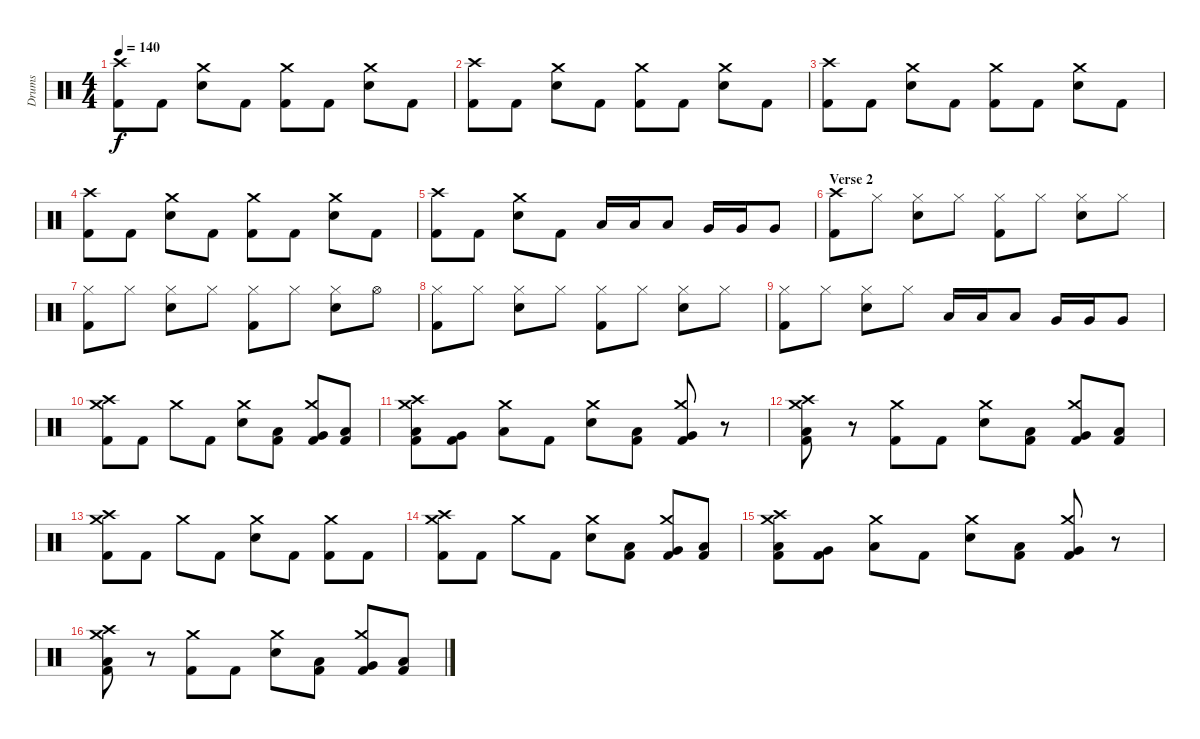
\track ("Drums" "Drums") {instrument percussion}
\staff {score}
\articulation defaults
\ts (4 4)
\tempo 140
\clef neutral
\ks c
("Crash high (hit)" "Kick (hit) 2").8{dy f} "Kick (hit) 2".8 ("Crash medium (hit)" "Snare (hit) 2").8 "Kick (hit) 2".8 ("Crash medium (hit)" "Kick (hit) 2").8 "Kick (hit) 2".8 ("Crash medium (hit)" "Snare (hit) 2").8 "Kick (hit) 2".8 |
("Crash high (hit)" "Kick (hit) 2").8 "Kick (hit) 2".8 ("Crash medium (hit)" "Snare (hit) 2").8 "Kick (hit) 2".8 ("Crash medium (hit)" "Kick (hit) 2").8 "Kick (hit) 2".8 ("Crash medium (hit)" "Snare (hit) 2").8 "Kick (hit) 2".8 |
("Crash high (hit)" "Kick (hit) 2").8 "Kick (hit) 2".8 ("Crash medium (hit)" "Snare (hit) 2").8 "Kick (hit) 2".8 ("Crash medium (hit)" "Kick (hit) 2").8 "Kick (hit) 2".8 ("Crash medium (hit)" "Snare (hit) 2").8 "Kick (hit) 2".8 |
("Crash high (hit)" "Kick (hit) 2").8 "Kick (hit) 2".8 ("Crash medium (hit)" "Snare (hit) 2").8 "Kick (hit) 2".8 ("Crash medium (hit)" "Kick (hit) 2").8 "Kick (hit) 2".8 ("Crash medium (hit)" "Snare (hit) 2").8 "Kick (hit) 2".8 |
("Crash high (hit)" "Kick (hit) 2").8 "Kick (hit) 2".8 ("Crash medium (hit)" "Snare (hit) 2").8 "Kick (hit) 2".8 "Low Tom (hit)".16 "Low Tom (hit)".16 "Low Tom (hit)".8 "Very Low Tom (hit)".16 "Very Low Tom (hit)".16 "Very Low Tom (hit)".8 |
\section ("" "Verse 2")
("Crash high (hit)" "Kick (hit) 2").8 "Hi-Hat (closed)".8 ("Hi-Hat (closed)" "Snare (hit) 2").8 "Hi-Hat (closed)".8 ("Hi-Hat (closed)" "Kick (hit) 2").8 "Hi-Hat (closed)".8 ("Hi-Hat (closed)" "Snare (hit) 2").8 "Hi-Hat (closed)".8 |
("Hi-Hat (closed)" "Kick (hit) 2").8 "Hi-Hat (closed)".8 ("Hi-Hat (closed)" "Snare (hit) 2").8 "Hi-Hat (closed)".8 ("Hi-Hat (closed)" "Kick (hit) 2").8 "Hi-Hat (closed)".8 ("Hi-Hat (closed)" "Snare (hit) 2").8 "Hi-Hat (open)".8 |
("Hi-Hat (closed)" "Kick (hit) 2").8 "Hi-Hat (closed)".8 ("Hi-Hat (closed)" "Snare (hit) 2").8 "Hi-Hat (closed)".8 ("Hi-Hat (closed)" "Kick (hit) 2").8 "Hi-Hat (closed)".8 ("Hi-Hat (closed)" "Snare (hit) 2").8 "Hi-Hat (closed)".8 |
("Hi-Hat (closed)" "Kick (hit) 2").8 "Hi-Hat (closed)".8 ("Hi-Hat (closed)" "Snare (hit) 2").8 "Hi-Hat (closed)".8 "Low Tom (hit)".16 "Low Tom (hit)".16 "Low Tom (hit)".8 "Very Low Tom (hit)".16 "Very Low Tom (hit)".16 "Very Low Tom (hit)".8 |
("Crash high (hit)" "Crash medium (hit)" "Kick (hit) 2").8 "Kick (hit) 2".8 "Crash medium (hit)".8 "Kick (hit) 2".8 ("Crash medium (hit)" "Snare (hit) 2").8 ("Low Tom (hit)" "Kick (hit) 2").8 ("Crash medium (hit)" "Very Low Tom (hit)" "Kick (hit) 2").8 ("Low Floor Tom (hit)" "Kick (hit) 2").8 |
("Crash high (hit)" "Crash medium (hit)" "Low Tom (hit)" "Kick (hit) 2").8 ("Very Low Tom (hit)" "Kick (hit) 2").8 ("Crash medium (hit)" "Low Floor Tom (hit)").8 "Kick (hit) 2".8 ("Crash medium (hit)" "Snare (hit) 2").8 ("Low Tom (hit)" "Kick (hit) 2").8 ("Crash medium (hit)" "Very Low Tom (hit)" "Kick (hit) 2").8 r.8 |
("Crash high (hit)" "Crash medium (hit)" "Low Tom (hit)" "Kick (hit) 2").8 r.8 ("Crash medium (hit)" "Kick (hit) 2").8 "Kick (hit) 2".8 ("Crash medium (hit)" "Snare (hit) 2").8 ("Low Tom (hit)" "Kick (hit) 2").8 ("Crash medium (hit)" "Very Low Tom (hit)" "Kick (hit) 2").8 ("Low Floor Tom (hit)" "Kick (hit) 2").8 |
("Crash high (hit)" "Crash medium (hit)" "Kick (hit) 2").8 "Kick (hit) 2".8 "Crash medium (hit)".8 "Kick (hit) 2".8 ("Crash medium (hit)" "Snare (hit) 2").8 "Kick (hit) 2".8 ("Crash medium (hit)" "Kick (hit) 2").8 "Kick (hit) 2".8 |
("Crash high (hit)" "Crash medium (hit)" "Kick (hit) 2").8 "Kick (hit) 2".8 "Crash medium (hit)".8 "Kick (hit) 2".8 ("Crash medium (hit)" "Snare (hit) 2").8 ("Low Tom (hit)" "Kick (hit) 2").8 ("Crash medium (hit)" "Very Low Tom (hit)" "Kick (hit) 2").8 ("Low Floor Tom (hit)" "Kick (hit) 2").8 |
("Crash high (hit)" "Crash medium (hit)" "Low Tom (hit)" "Kick (hit) 2").8 ("Very Low Tom (hit)" "Kick (hit) 2").8 ("Crash medium (hit)" "Low Floor Tom (hit)").8 "Kick (hit) 2".8 ("Crash medium (hit)" "Snare (hit) 2").8 ("Low Tom (hit)" "Kick (hit) 2").8 ("Crash medium (hit)" "Very Low Tom (hit)" "Kick (hit) 2").8 r.8 |
("Crash high (hit)" "Crash medium (hit)" "Low Tom (hit)" "Kick (hit) 2").8 r.8 ("Crash medium (hit)" "Kick (hit) 2").8 "Kick (hit) 2".8 ("Crash medium (hit)" "Snare (hit) 2").8 ("Low Tom (hit)" "Kick (hit) 2").8 ("Crash medium (hit)" "Very Low Tom (hit)" "Kick (hit) 2").8 ("Low Floor Tom (hit)" "Kick (hit) 2").8
